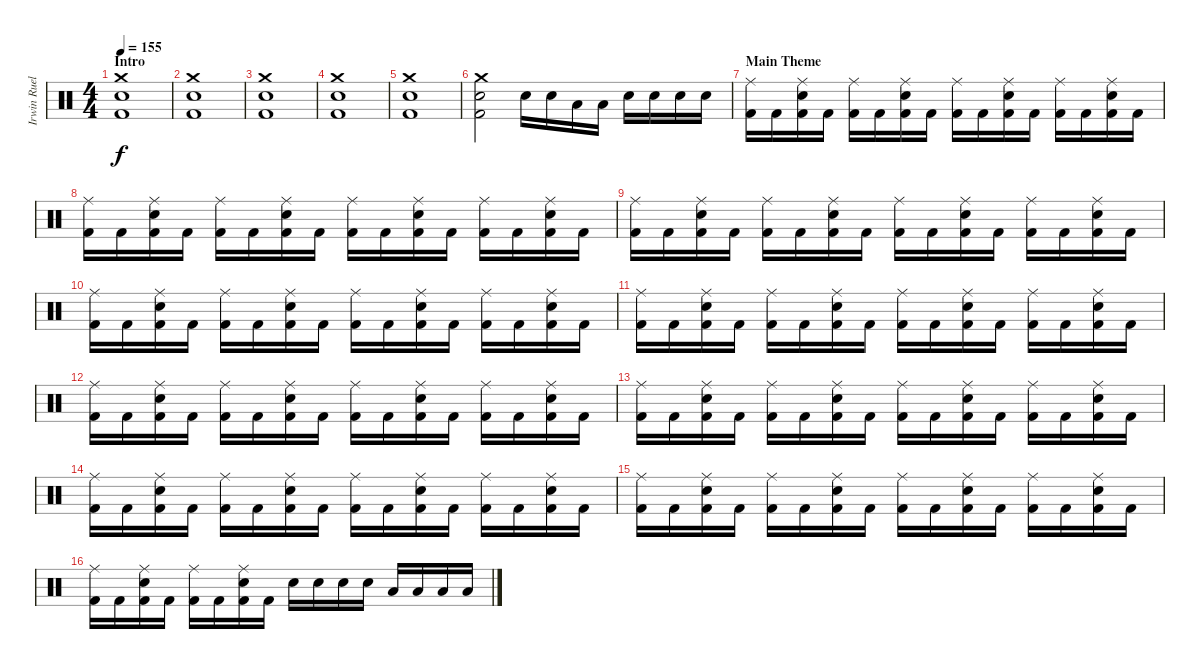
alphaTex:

\track ("Irwin Ruelas" "Irwin Ruel") {instrument percussion}
\staff {score}
\articulation defaults
\ts (4 4)
\section ("" "Intro")
\tempo 155
\clef neutral
\ks c
("Crash medium (hit)" "Electric Snare (hit)" "Kick (hit) 2").1{dy f} |
("Crash medium (hit)" "Electric Snare (hit)" "Kick (hit) 2").1 |
("Crash medium (hit)" "Electric Snare (hit)" "Kick (hit) 2").1 |
("Crash medium (hit)" "Electric Snare (hit)" "Kick (hit) 2").1 |
("Crash medium (hit)" "Electric Snare (hit)" "Kick (hit) 2").1 |
("Crash medium (hit)" "Electric Snare (hit)" "Kick (hit) 2").2 "Electric Snare (hit)".16 "Electric Snare (hit)".16 "Low Tom (hit)".16 "Low Tom (hit)".16 "Electric Snare (hit)".16 "Electric Snare (hit)".16 "Electric Snare (hit)".16 "Electric Snare (hit)".16 |
\section ("" "Main Theme")
("Ride (middle)" "Kick (hit) 2").16 "Kick (hit) 2".16 ("Ride (middle)" "Electric Snare (hit)" "Kick (hit) 2").16 "Kick (hit) 2".16 ("Ride (middle)" "Kick (hit) 2").16 "Kick (hit) 2".16 ("Ride (middle)" "Electric Snare (hit)" "Kick (hit) 2").16 "Kick (hit) 2".16 ("Ride (middle)" "Kick (hit) 2").16 "Kick (hit) 2".16 ("Ride (middle)" "Electric Snare (hit)" "Kick (hit) 2").16 "Kick (hit) 2".16 ("Ride (middle)" "Kick (hit) 2").16 "Kick (hit) 2".16 ("Ride (middle)" "Electric Snare (hit)" "Kick (hit) 2").16 "Kick (hit) 2".16 |
("Ride (middle)" "Kick (hit) 2").16 "Kick (hit) 2".16 ("Ride (middle)" "Electric Snare (hit)" "Kick (hit) 2").16 "Kick (hit) 2".16 ("Ride (middle)" "Kick (hit) 2").16 "Kick (hit) 2".16 ("Ride (middle)" "Electric Snare (hit)" "Kick (hit) 2").16 "Kick (hit) 2".16 ("Ride (middle)" "Kick (hit) 2").16 "Kick (hit) 2".16 ("Ride (middle)" "Electric Snare (hit)" "Kick (hit) 2").16 "Kick (hit) 2".16 ("Ride (middle)" "Kick (hit) 2").16 "Kick (hit) 2".16 ("Ride (middle)" "Electric Snare (hit)" "Kick (hit) 2").16 "Kick (hit) 2".16 |
("Ride (middle)" "Kick (hit) 2").16 "Kick (hit) 2".16 ("Ride (middle)" "Electric Snare (hit)" "Kick (hit) 2").16 "Kick (hit) 2".16 ("Ride (middle)" "Kick (hit) 2").16 "Kick (hit) 2".16 ("Ride (middle)" "Electric Snare (hit)" "Kick (hit) 2").16 "Kick (hit) 2".16 ("Ride (middle)" "Kick (hit) 2").16 "Kick (hit) 2".16 ("Ride (middle)" "Electric Snare (hit)" "Kick (hit) 2").16 "Kick (hit) 2".16 ("Ride (middle)" "Kick (hit) 2").16 "Kick (hit) 2".16 ("Ride (middle)" "Electric Snare (hit)" "Kick (hit) 2").16 "Kick (hit) 2".16 |
("Ride (middle)" "Kick (hit) 2").16 "Kick (hit) 2".16 ("Ride (middle)" "Electric Snare (hit)" "Kick (hit) 2").16 "Kick (hit) 2".16 ("Ride (middle)" "Kick (hit) 2").16 "Kick (hit) 2".16 ("Ride (middle)" "Electric Snare (hit)" "Kick (hit) 2").16 "Kick (hit) 2".16 ("Ride (middle)" "Kick (hit) 2").16 "Kick (hit) 2".16 ("Ride (middle)" "Electric Snare (hit)" "Kick (hit) 2").16 "Kick (hit) 2".16 ("Ride (middle)" "Kick (hit) 2").16 "Kick (hit) 2".16 ("Ride (middle)" "Electric Snare (hit)" "Kick (hit) 2").16 "Kick (hit) 2".16 |
("Ride (middle)" "Kick (hit) 2").16 "Kick (hit) 2".16 ("Ride (middle)" "Electric Snare (hit)" "Kick (hit) 2").16 "Kick (hit) 2".16 ("Ride (middle)" "Kick (hit) 2").16 "Kick (hit) 2".16 ("Ride (middle)" "Electric Snare (hit)" "Kick (hit) 2").16 "Kick (hit) 2".16 ("Ride (middle)" "Kick (hit) 2").16 "Kick (hit) 2".16 ("Ride (middle)" "Electric Snare (hit)" "Kick (hit) 2").16 "Kick (hit) 2".16 ("Ride (middle)" "Kick (hit) 2").16 "Kick (hit) 2".16 ("Ride (middle)" "Electric Snare (hit)" "Kick (hit) 2").16 "Kick (hit) 2".16 |
("Ride (middle)" "Kick (hit) 2").16 "Kick (hit) 2".16 ("Ride (middle)" "Electric Snare (hit)" "Kick (hit) 2").16 "Kick (hit) 2".16 ("Ride (middle)" "Kick (hit) 2").16 "Kick (hit) 2".16 ("Ride (middle)" "Electric Snare (hit)" "Kick (hit) 2").16 "Kick (hit) 2".16 ("Ride (middle)" "Kick (hit) 2").16 "Kick (hit) 2".16 ("Ride (middle)" "Electric Snare (hit)" "Kick (hit) 2").16 "Kick (hit) 2".16 ("Ride (middle)" "Kick (hit) 2").16 "Kick (hit) 2".16 ("Ride (middle)" "Electric Snare (hit)" "Kick (hit) 2").16 "Kick (hit) 2".16 |
("Ride (middle)" "Kick (hit) 2").16 "Kick (hit) 2".16 ("Ride (middle)" "Electric Snare (hit)" "Kick (hit) 2").16 "Kick (hit) 2".16 ("Ride (middle)" "Kick (hit) 2").16 "Kick (hit) 2".16 ("Ride (middle)" "Electric Snare (hit)" "Kick (hit) 2").16 "Kick (hit) 2".16 ("Ride (middle)" "Kick (hit) 2").16 "Kick (hit) 2".16 ("Ride (middle)" "Electric Snare (hit)" "Kick (hit) 2").16 "Kick (hit) 2".16 ("Ride (middle)" "Kick (hit) 2").16 "Kick (hit) 2".16 ("Ride (middle)" "Electric Snare (hit)" "Kick (hit) 2").16 "Kick (hit) 2".16 |
("Ride (middle)" "Kick (hit) 2").16 "Kick (hit) 2".16 ("Ride (middle)" "Electric Snare (hit)" "Kick (hit) 2").16 "Kick (hit) 2".16 ("Ride (middle)" "Kick (hit) 2").16 "Kick (hit) 2".16 ("Ride (middle)" "Electric Snare (hit)" "Kick (hit) 2").16 "Kick (hit) 2".16 ("Ride (middle)" "Kick (hit) 2").16 "Kick (hit) 2".16 ("Ride (middle)" "Electric Snare (hit)" "Kick (hit) 2").16 "Kick (hit) 2".16 ("Ride (middle)" "Kick (hit) 2").16 "Kick (hit) 2".16 ("Ride (middle)" "Electric Snare (hit)" "Kick (hit) 2").16 "Kick (hit) 2".16 |
("Ride (middle)" "Kick (hit) 2").16 "Kick (hit) 2".16 ("Ride (middle)" "Electric Snare (hit)" "Kick (hit) 2").16 "Kick (hit) 2".16 ("Ride (middle)" "Kick (hit) 2").16 "Kick (hit) 2".16 ("Ride (middle)" "Electric Snare (hit)" "Kick (hit) 2").16 "Kick (hit) 2".16 ("Ride (middle)" "Kick (hit) 2").16 "Kick (hit) 2".16 ("Ride (middle)" "Electric Snare (hit)" "Kick (hit) 2").16 "Kick (hit) 2".16 ("Ride (middle)" "Kick (hit) 2").16 "Kick (hit) 2".16 ("Ride (middle)" "Electric Snare (hit)" "Kick (hit) 2").16 "Kick (hit) 2".16 |
("Ride (middle)" "Kick (hit) 2").16 "Kick (hit) 2".16 ("Ride (middle)" "Electric Snare (hit)" "Kick (hit) 2").16 "Kick (hit) 2".16 ("Ride (middle)" "Kick (hit) 2").16 "Kick (hit) 2".16 ("Ride (middle)" "Electric Snare (hit)" "Kick (hit) 2").16 "Kick (hit) 2".16 "Electric Snare (hit)".16 "Electric Snare (hit)".16 "Electric Snare (hit)".16 "Electric Snare (hit)".16 "Low Tom (hit)".16 "Low Tom (hit)".16 "Low Tom (hit)".16 "Low Tom (hit)".16
